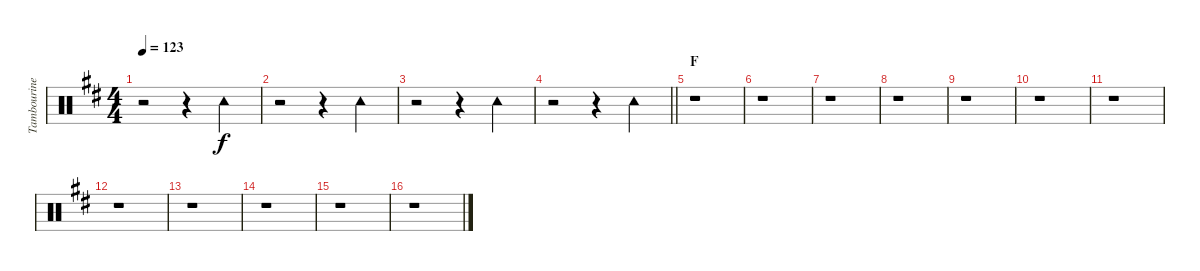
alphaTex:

\track ("Tambourine" "Tambourine") {instrument percussion}
\staff {score}
\articulation defaults
\ts (4 4)
\tempo 123
\clef neutral
\ks d
r.2{dy f} r.4 "Tambourine (hit)".4 |
r.2 r.4 "Tambourine (hit)".4 |
r.2 r.4 "Tambourine (hit)".4 |
\barLineRight lightlight
r.2 r.4 "Tambourine (hit)".4 |
\section ("" "F")
r.1 |
r.1 |
r.1 |
r.1 |
r.1 |
r.1 |
r.1 |
r.1 |
r.1 |
r.1 |
r.1 |
r.1
